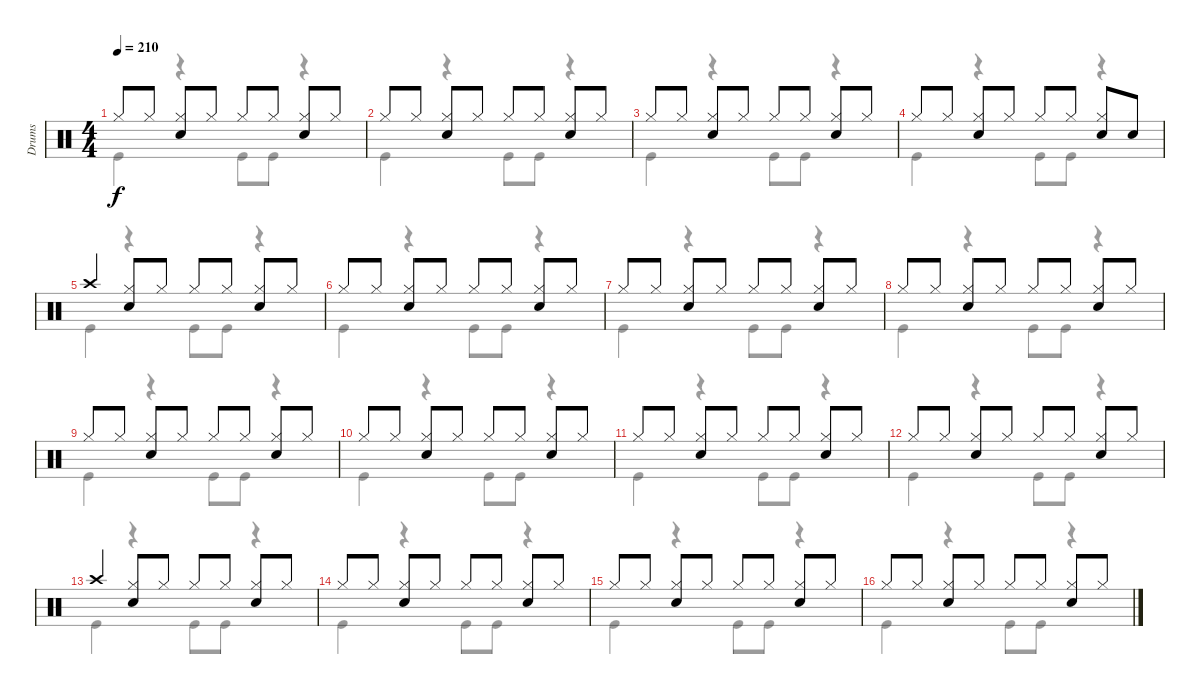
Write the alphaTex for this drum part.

\track ("Drums" "Drums") {instrument percussion}
\staff {score}
\articulation defaults
\voice
\ts (4 4)
\tempo 210
\clef neutral
\ks c "Hi-Hat (closed)".8{dy f} "Hi-Hat (closed)".8
("Hi-Hat (closed)" "Snare (hit) 2").8 "Hi-Hat (closed)".8 "Hi-Hat (closed)".8 "Hi-Hat (closed)".8 ("Hi-Hat (closed)" "Snare (hit) 2").8 "Hi-Hat (closed)".8 |
"Hi-Hat (closed)".8 "Hi-Hat (closed)".8 ("Hi-Hat (closed)" "Snare (hit) 2").8 "Hi-Hat (closed)".8 "Hi-Hat (closed)".8 "Hi-Hat (closed)".8 ("Hi-Hat (closed)" "Snare (hit) 2").8 "Hi-Hat (closed)".8 |
"Hi-Hat (closed)".8 "Hi-Hat (closed)".8 ("Hi-Hat (closed)" "Snare (hit) 2").8 "Hi-Hat (closed)".8 "Hi-Hat (closed)".8 "Hi-Hat (closed)".8 ("Hi-Hat (closed)" "Snare (hit) 2").8 "Hi-Hat (closed)".8 |
"Hi-Hat (closed)".8 "Hi-Hat (closed)".8 ("Hi-Hat (closed)" "Snare (hit) 2").8 "Hi-Hat (closed)".8 "Hi-Hat (closed)".8 "Hi-Hat (closed)".8 ("Hi-Hat (closed)" "Snare (hit) 2").8 "Snare (hit) 2".8 |
"Crash high (hit)".4 ("Hi-Hat (closed)" "Snare (hit) 2").8 "Hi-Hat (closed)".8 "Hi-Hat (closed)".8 "Hi-Hat (closed)".8 ("Hi-Hat (closed)" "Snare (hit) 2").8 "Hi-Hat (closed)".8 |
"Hi-Hat (closed)".8 "Hi-Hat (closed)".8 ("Hi-Hat (closed)" "Snare (hit) 2").8 "Hi-Hat (closed)".8 "Hi-Hat (closed)".8 "Hi-Hat (closed)".8 ("Hi-Hat (closed)" "Snare (hit) 2").8 "Hi-Hat (closed)".8 |
"Hi-Hat (closed)".8 "Hi-Hat (closed)".8 ("Hi-Hat (closed)" "Snare (hit) 2").8 "Hi-Hat (closed)".8 "Hi-Hat (closed)".8 "Hi-Hat (closed)".8 ("Hi-Hat (closed)" "Snare (hit) 2").8 "Hi-Hat (closed)".8 |
"Hi-Hat (closed)".8 "Hi-Hat (closed)".8 ("Hi-Hat (closed)" "Snare (hit) 2").8 "Hi-Hat (closed)".8 "Hi-Hat (closed)".8 "Hi-Hat (closed)".8 ("Hi-Hat (closed)" "Snare (hit) 2").8 "Hi-Hat (closed)".8 |
"Hi-Hat (closed)".8 "Hi-Hat (closed)".8 ("Hi-Hat (closed)" "Snare (hit) 2").8 "Hi-Hat (closed)".8 "Hi-Hat (closed)".8 "Hi-Hat (closed)".8 ("Hi-Hat (closed)" "Snare (hit) 2").8 "Hi-Hat (closed)".8 |
"Hi-Hat (closed)".8 "Hi-Hat (closed)".8 ("Hi-Hat (closed)" "Snare (hit) 2").8 "Hi-Hat (closed)".8 "Hi-Hat (closed)".8 "Hi-Hat (closed)".8 ("Hi-Hat (closed)" "Snare (hit) 2").8 "Hi-Hat (closed)".8 |
"Hi-Hat (closed)".8 "Hi-Hat (closed)".8 ("Hi-Hat (closed)" "Snare (hit) 2").8 "Hi-Hat (closed)".8 "Hi-Hat (closed)".8 "Hi-Hat (closed)".8 ("Hi-Hat (closed)" "Snare (hit) 2").8 "Hi-Hat (closed)".8 |
"Hi-Hat (closed)".8 "Hi-Hat (closed)".8 ("Hi-Hat (closed)" "Snare (hit) 2").8 "Hi-Hat (closed)".8 "Hi-Hat (closed)".8 "Hi-Hat (closed)".8 ("Hi-Hat (closed)" "Snare (hit) 2").8 "Hi-Hat (closed)".8 |
"Crash high (hit)".4 ("Hi-Hat (closed)" "Snare (hit) 2").8 "Hi-Hat (closed)".8 "Hi-Hat (closed)".8 "Hi-Hat (closed)".8 ("Hi-Hat (closed)" "Snare (hit) 2").8 "Hi-Hat (closed)".8 |
"Hi-Hat (closed)".8 "Hi-Hat (closed)".8 ("Hi-Hat (closed)" "Snare (hit) 2").8 "Hi-Hat (closed)".8 "Hi-Hat (closed)".8 "Hi-Hat (closed)".8 ("Hi-Hat (closed)" "Snare (hit) 2").8 "Hi-Hat (closed)".8 |
"Hi-Hat (closed)".8 "Hi-Hat (closed)".8 ("Hi-Hat (closed)" "Snare (hit) 2").8 "Hi-Hat (closed)".8 "Hi-Hat (closed)".8 "Hi-Hat (closed)".8 ("Hi-Hat (closed)" "Snare (hit) 2").8 "Hi-Hat (closed)".8 |
"Hi-Hat (closed)".8 "Hi-Hat (closed)".8 ("Hi-Hat (closed)" "Snare (hit) 2").8 "Hi-Hat (closed)".8 "Hi-Hat (closed)".8 "Hi-Hat (closed)".8 ("Hi-Hat (closed)" "Snare (hit) 2").8 "Hi-Hat (closed)".8
\voice
\clef neutral
\ottava regular
\simile none
\ks c "Kick (hit)".4{dy f}
r.4 "Kick (hit)".8 "Kick (hit)".8 r.4 |
"Kick (hit)".4 r.4 "Kick (hit)".8 "Kick (hit)".8 r.4 |
"Kick (hit)".4 r.4 "Kick (hit)".8 "Kick (hit)".8 r.4 |
"Kick (hit)".4 r.4 "Kick (hit)".8 "Kick (hit)".8 r.4 |
"Kick (hit)".4 r.4 "Kick (hit)".8 "Kick (hit)".8 r.4 |
"Kick (hit)".4 r.4 "Kick (hit)".8 "Kick (hit)".8 r.4 |
"Kick (hit)".4 r.4 "Kick (hit)".8 "Kick (hit)".8 r.4 |
"Kick (hit)".4 r.4 "Kick (hit)".8 "Kick (hit)".8 r.4 |
"Kick (hit)".4 r.4 "Kick (hit)".8 "Kick (hit)".8 r.4 |
"Kick (hit)".4 r.4 "Kick (hit)".8 "Kick (hit)".8 r.4 |
"Kick (hit)".4 r.4 "Kick (hit)".8 "Kick (hit)".8 r.4 |
"Kick (hit)".4 r.4 "Kick (hit)".8 "Kick (hit)".8 r.4 |
"Kick (hit)".4 r.4 "Kick (hit)".8 "Kick (hit)".8 r.4 |
"Kick (hit)".4 r.4 "Kick (hit)".8 "Kick (hit)".8 r.4 |
"Kick (hit)".4 r.4 "Kick (hit)".8 "Kick (hit)".8 r.4 |
"Kick (hit)".4 r.4 "Kick (hit)".8 "Kick (hit)".8 r.4
